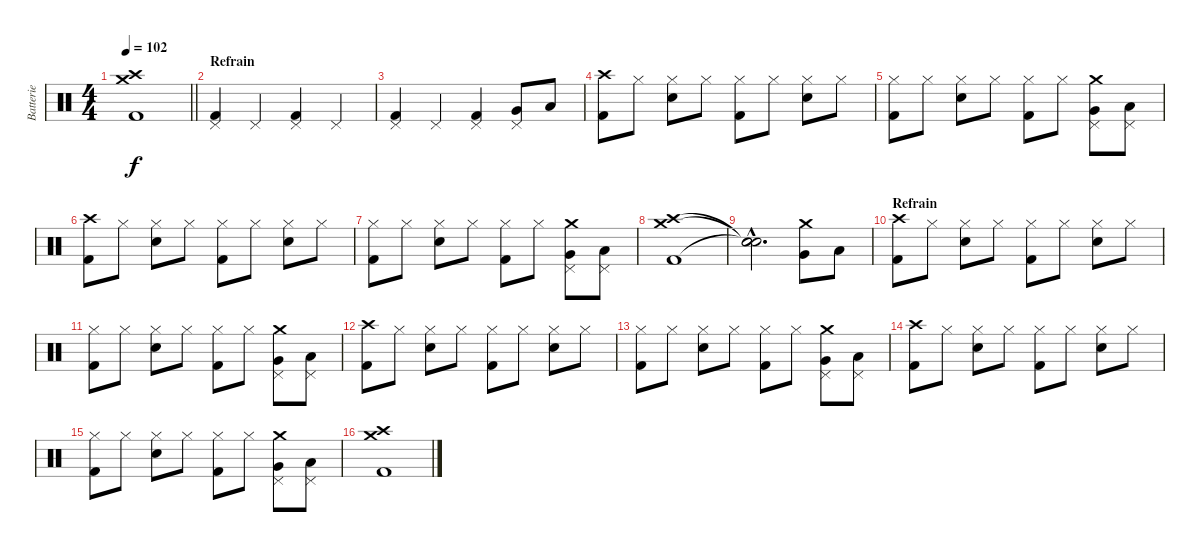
\track ("Batterie" "Batterie") {instrument percussion}
\staff {score}
\articulation defaults
\ts (4 4)
\tempo 102
\clef neutral
\barLineRight lightlight
\ks c
("Crash medium (hit)" "Crash high (hit)" "Kick (hit) 2").1{dy f} |
\section ("" "Refrain")
("Pedal Hi-Hat (hit)" "Kick (hit) 2").4 "Pedal Hi-Hat (hit)".4 ("Pedal Hi-Hat (hit)" "Kick (hit) 2").4 "Pedal Hi-Hat (hit)".4 |
("Pedal Hi-Hat (hit)" "Kick (hit) 2").4 "Pedal Hi-Hat (hit)".4 ("Pedal Hi-Hat (hit)" "Kick (hit) 2").4 ("Pedal Hi-Hat (hit)" "Very Low Tom (hit)").8 "Low Floor Tom (hit)".8 |
("Crash high (hit)" "Kick (hit) 2").8 "Hi-Hat (closed)".8 ("Hi-Hat (closed)" "Snare (hit) 2").8 "Hi-Hat (closed)".8 ("Hi-Hat (closed)" "Kick (hit) 2").8 "Hi-Hat (closed)".8 ("Hi-Hat (closed)" "Snare (hit) 2").8 "Hi-Hat (closed)".8 |
("Hi-Hat (closed)" "Kick (hit) 2").8 "Hi-Hat (closed)".8 ("Hi-Hat (closed)" "Snare (hit) 2").8 "Hi-Hat (closed)".8 ("Hi-Hat (closed)" "Kick (hit) 2").8 "Hi-Hat (closed)".8 ("Pedal Hi-Hat (hit)" "Crash medium (hit)" "Very Low Tom (hit)").8 ("Pedal Hi-Hat (hit)" "Low Floor Tom (hit)").8 |
("Crash high (hit)" "Kick (hit) 2").8 "Hi-Hat (closed)".8 ("Hi-Hat (closed)" "Snare (hit) 2").8 "Hi-Hat (closed)".8 ("Hi-Hat (closed)" "Kick (hit) 2").8 "Hi-Hat (closed)".8 ("Hi-Hat (closed)" "Snare (hit) 2").8 "Hi-Hat (closed)".8 |
("Hi-Hat (closed)" "Kick (hit) 2").8 "Hi-Hat (closed)".8 ("Hi-Hat (closed)" "Snare (hit) 2").8 "Hi-Hat (closed)".8 ("Hi-Hat (closed)" "Kick (hit) 2").8 "Hi-Hat (closed)".8 ("Pedal Hi-Hat (hit)" "Crash medium (hit)" "Very Low Tom (hit)").8 ("Pedal Hi-Hat (hit)" "Low Floor Tom (hit)").8 |
("Crash medium (hit)" "Crash high (hit)" "Kick (hit) 2").1 |
("Snare (hit)"{hac t} "Snare (hit)"{hac t} "Snare (hit)"{hac t}).2{d} ("Crash medium (hit)" "Very Low Tom (hit)").8 "Low Floor Tom (hit)".8 |
\section ("" "Refrain")
("Crash high (hit)" "Kick (hit) 2").8 "Hi-Hat (closed)".8 ("Hi-Hat (closed)" "Snare (hit) 2").8 "Hi-Hat (closed)".8 ("Hi-Hat (closed)" "Kick (hit) 2").8 "Hi-Hat (closed)".8 ("Hi-Hat (closed)" "Snare (hit) 2").8 "Hi-Hat (closed)".8 |
("Hi-Hat (closed)" "Kick (hit) 2").8 "Hi-Hat (closed)".8 ("Hi-Hat (closed)" "Snare (hit) 2").8 "Hi-Hat (closed)".8 ("Hi-Hat (closed)" "Kick (hit) 2").8 "Hi-Hat (closed)".8 ("Pedal Hi-Hat (hit)" "Crash medium (hit)" "Very Low Tom (hit)").8 ("Pedal Hi-Hat (hit)" "Low Floor Tom (hit)").8 |
("Crash high (hit)" "Kick (hit) 2").8 "Hi-Hat (closed)".8 ("Hi-Hat (closed)" "Snare (hit) 2").8 "Hi-Hat (closed)".8 ("Hi-Hat (closed)" "Kick (hit) 2").8 "Hi-Hat (closed)".8 ("Hi-Hat (closed)" "Snare (hit) 2").8 "Hi-Hat (closed)".8 |
("Hi-Hat (closed)" "Kick (hit) 2").8 "Hi-Hat (closed)".8 ("Hi-Hat (closed)" "Snare (hit) 2").8 "Hi-Hat (closed)".8 ("Hi-Hat (closed)" "Kick (hit) 2").8 "Hi-Hat (closed)".8 ("Pedal Hi-Hat (hit)" "Crash medium (hit)" "Very Low Tom (hit)").8 ("Pedal Hi-Hat (hit)" "Low Floor Tom (hit)").8 |
("Crash high (hit)" "Kick (hit) 2").8 "Hi-Hat (closed)".8 ("Hi-Hat (closed)" "Snare (hit) 2").8 "Hi-Hat (closed)".8 ("Hi-Hat (closed)" "Kick (hit) 2").8 "Hi-Hat (closed)".8 ("Hi-Hat (closed)" "Snare (hit) 2").8 "Hi-Hat (closed)".8 |
("Hi-Hat (closed)" "Kick (hit) 2").8 "Hi-Hat (closed)".8 ("Hi-Hat (closed)" "Snare (hit) 2").8 "Hi-Hat (closed)".8 ("Hi-Hat (closed)" "Kick (hit) 2").8 "Hi-Hat (closed)".8 ("Pedal Hi-Hat (hit)" "Crash medium (hit)" "Very Low Tom (hit)").8 ("Pedal Hi-Hat (hit)" "Low Floor Tom (hit)").8 |
("Crash medium (hit)" "Crash high (hit)" "Kick (hit) 2").1
